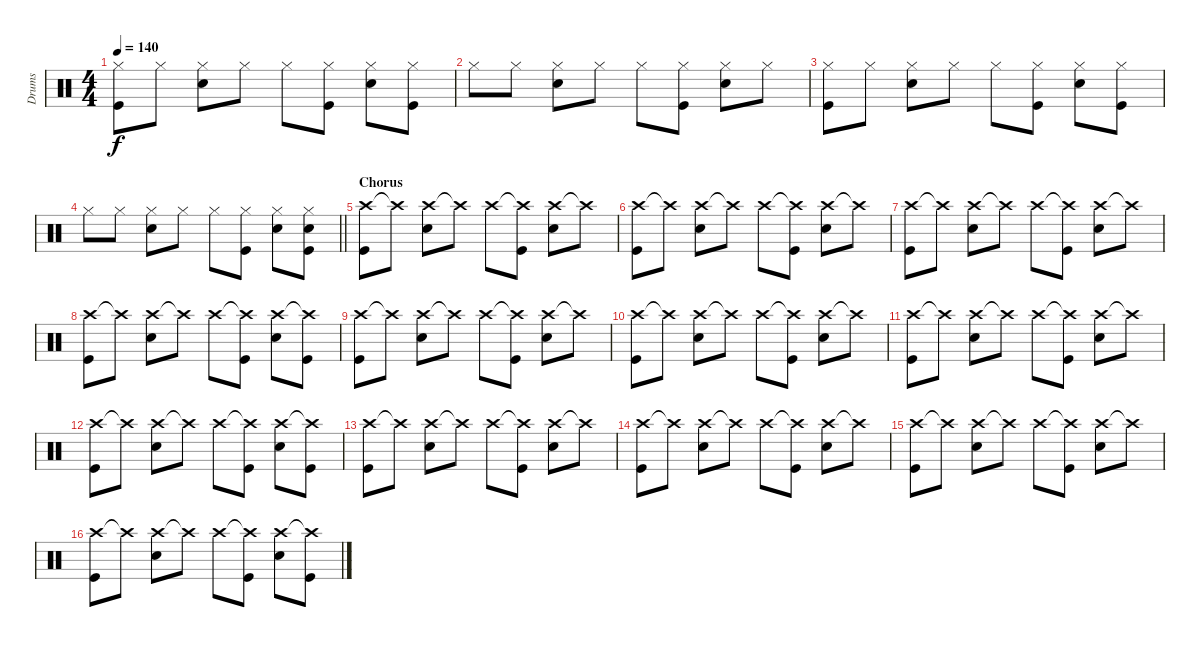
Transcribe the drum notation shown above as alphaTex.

\track ("Drums" "Drums") {instrument percussion}
\staff {score}
\articulation defaults
\ts (4 4)
\tempo 140
\clef neutral
\ks c
("Hi-Hat (closed)" "Kick (hit)").8{dy f} "Hi-Hat (closed)".8 ("Hi-Hat (closed)" "Snare (hit) 2").8 "Hi-Hat (closed)".8 "Hi-Hat (closed)".8 ("Hi-Hat (closed)" "Kick (hit)").8 ("Hi-Hat (closed)" "Snare (hit) 2").8 ("Hi-Hat (closed)" "Kick (hit)").8 |
"Hi-Hat (closed)".8 "Hi-Hat (closed)".8 ("Hi-Hat (closed)" "Snare (hit) 2").8 "Hi-Hat (closed)".8 "Hi-Hat (closed)".8 ("Hi-Hat (closed)" "Kick (hit)").8 ("Hi-Hat (closed)" "Snare (hit) 2").8 "Hi-Hat (closed)".8 |
("Hi-Hat (closed)" "Kick (hit)").8 "Hi-Hat (closed)".8 ("Hi-Hat (closed)" "Snare (hit) 2").8 "Hi-Hat (closed)".8 "Hi-Hat (closed)".8 ("Hi-Hat (closed)" "Kick (hit)").8 ("Hi-Hat (closed)" "Snare (hit) 2").8 ("Hi-Hat (closed)" "Kick (hit)").8 |
\barLineRight lightlight "Hi-Hat (closed)".8 "Hi-Hat (closed)".8
("Hi-Hat (closed)" "Snare (hit) 2").8 "Hi-Hat (closed)".8 "Hi-Hat (closed)".8 ("Hi-Hat (closed)" "Kick (hit)").8 ("Hi-Hat (closed)" "Snare (hit) 2").8 ("Hi-Hat (closed)" "Snare (hit) 2" "Kick (hit)").8 |
\section ("" "Chorus")
("Crash high (hit)" "Kick (hit)").8 "Crash high (hit)"{t}.8 ("Crash high (hit)" "Snare (hit) 2").8 "Crash high (hit)"{t}.8 "Crash high (hit)".8 ("Crash high (hit)"{t} "Kick (hit)").8 ("Crash high (hit)" "Snare (hit) 2").8 "Crash high (hit)"{t}.8 |
("Crash high (hit)" "Kick (hit)").8 "Crash high (hit)"{t}.8 ("Crash high (hit)" "Snare (hit) 2").8 "Crash high (hit)"{t}.8 "Crash high (hit)".8 ("Crash high (hit)"{t} "Kick (hit)").8 ("Crash high (hit)" "Snare (hit) 2").8 "Crash high (hit)"{t}.8 |
("Crash high (hit)" "Kick (hit)").8 "Crash high (hit)"{t}.8 ("Crash high (hit)" "Snare (hit) 2").8 "Crash high (hit)"{t}.8 "Crash high (hit)".8 ("Crash high (hit)"{t} "Kick (hit)").8 ("Crash high (hit)" "Snare (hit) 2").8 "Crash high (hit)"{t}.8 |
("Crash high (hit)" "Kick (hit)").8 "Crash high (hit)"{t}.8 ("Crash high (hit)" "Snare (hit) 2").8 "Crash high (hit)"{t}.8 "Crash high (hit)".8 ("Crash high (hit)"{t} "Kick (hit)").8 ("Crash high (hit)" "Snare (hit) 2").8 ("Crash high (hit)"{t} "Kick (hit)").8 |
("Crash high (hit)" "Kick (hit)").8 "Crash high (hit)"{t}.8 ("Crash high (hit)" "Snare (hit) 2").8 "Crash high (hit)"{t}.8 "Crash high (hit)".8 ("Crash high (hit)"{t} "Kick (hit)").8 ("Crash high (hit)" "Snare (hit) 2").8 "Crash high (hit)"{t}.8 |
("Crash high (hit)" "Kick (hit)").8 "Crash high (hit)"{t}.8 ("Crash high (hit)" "Snare (hit) 2").8 "Crash high (hit)"{t}.8 "Crash high (hit)".8 ("Crash high (hit)"{t} "Kick (hit)").8 ("Crash high (hit)" "Snare (hit) 2").8 "Crash high (hit)"{t}.8 |
("Crash high (hit)" "Kick (hit)").8 "Crash high (hit)"{t}.8 ("Crash high (hit)" "Snare (hit) 2").8 "Crash high (hit)"{t}.8 "Crash high (hit)".8 ("Crash high (hit)"{t} "Kick (hit)").8 ("Crash high (hit)" "Snare (hit) 2").8 "Crash high (hit)"{t}.8 |
("Crash high (hit)" "Kick (hit)").8 "Crash high (hit)"{t}.8 ("Crash high (hit)" "Snare (hit) 2").8 "Crash high (hit)"{t}.8 "Crash high (hit)".8 ("Crash high (hit)"{t} "Kick (hit)").8 ("Crash high (hit)" "Snare (hit) 2").8 ("Crash high (hit)"{t} "Kick (hit)").8 |
("Crash high (hit)" "Kick (hit)").8 "Crash high (hit)"{t}.8 ("Crash high (hit)" "Snare (hit) 2").8 "Crash high (hit)"{t}.8 "Crash high (hit)".8 ("Crash high (hit)"{t} "Kick (hit)").8 ("Crash high (hit)" "Snare (hit) 2").8 "Crash high (hit)"{t}.8 |
("Crash high (hit)" "Kick (hit)").8 "Crash high (hit)"{t}.8 ("Crash high (hit)" "Snare (hit) 2").8 "Crash high (hit)"{t}.8 "Crash high (hit)".8 ("Crash high (hit)"{t} "Kick (hit)").8 ("Crash high (hit)" "Snare (hit) 2").8 "Crash high (hit)"{t}.8 |
("Crash high (hit)" "Kick (hit)").8 "Crash high (hit)"{t}.8 ("Crash high (hit)" "Snare (hit) 2").8 "Crash high (hit)"{t}.8 "Crash high (hit)".8 ("Crash high (hit)"{t} "Kick (hit)").8 ("Crash high (hit)" "Snare (hit) 2").8 "Crash high (hit)"{t}.8 |
("Crash high (hit)" "Kick (hit)").8 "Crash high (hit)"{t}.8 ("Crash high (hit)" "Snare (hit) 2").8 "Crash high (hit)"{t}.8 "Crash high (hit)".8 ("Crash high (hit)"{t} "Kick (hit)").8 ("Crash high (hit)" "Snare (hit) 2").8 ("Crash high (hit)"{t} "Kick (hit)").8
